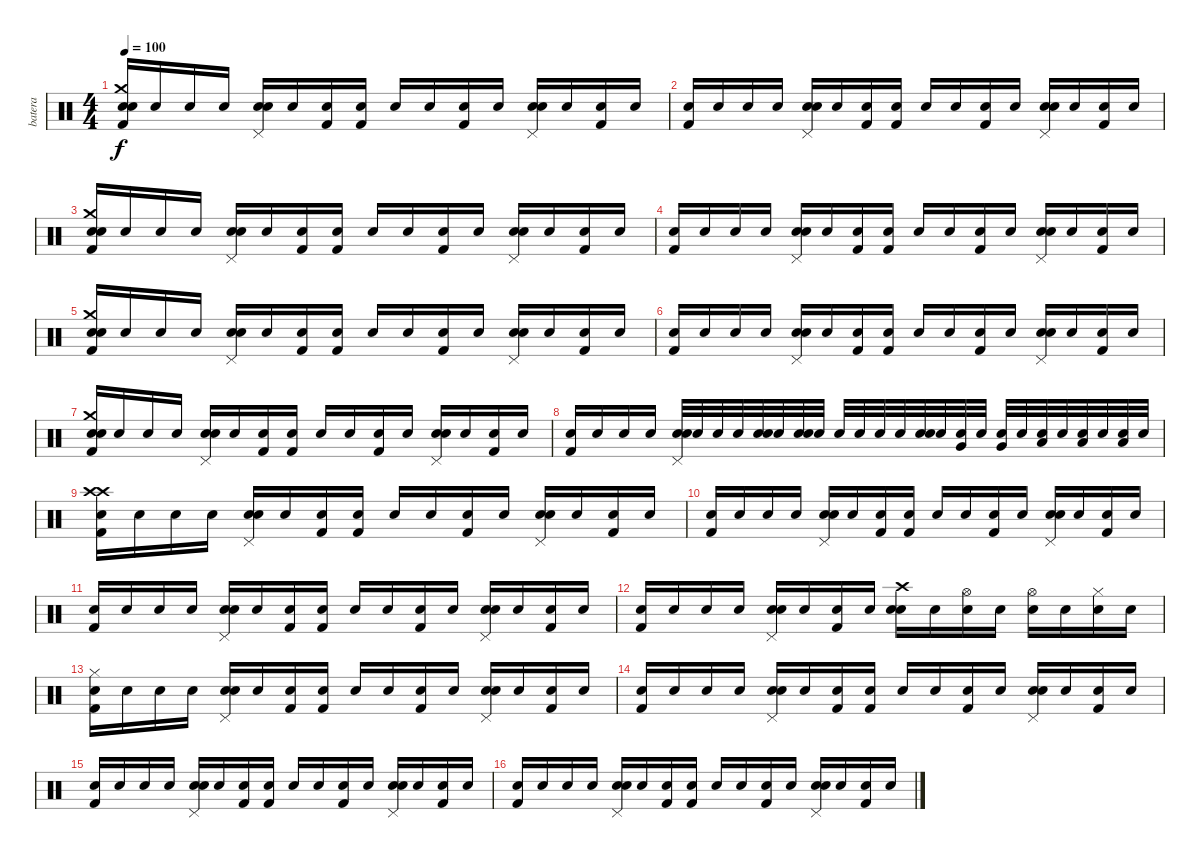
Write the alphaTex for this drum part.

\track ("batera" "batera") {instrument percussion}
\staff {score}
\articulation defaults
\ts (4 4)
\tempo 100
\clef neutral
\ks c
("Snare (hit)" "Crash medium (hit)" "Kick (hit) 2" "Snare (hit) 2").16{dy f} "Snare (hit)".16 "Snare (hit)".16 "Snare (hit)".16 ("Snare (hit)" "Pedal Hi-Hat (hit)" "Snare (hit) 2").16 "Snare (hit)".16 ("Snare (hit)" "Kick (hit) 2").16 ("Snare (hit)" "Kick (hit) 2").16 "Snare (hit)".16 "Snare (hit)".16 ("Snare (hit)" "Kick (hit) 2").16 "Snare (hit)".16 ("Snare (hit)" "Pedal Hi-Hat (hit)" "Snare (hit) 2").16 "Snare (hit)".16 ("Snare (hit)" "Kick (hit) 2").16 "Snare (hit)".16 |
("Snare (hit)" "Kick (hit) 2").16 "Snare (hit)".16 "Snare (hit)".16 "Snare (hit)".16 ("Snare (hit)" "Pedal Hi-Hat (hit)" "Snare (hit) 2").16 "Snare (hit)".16 ("Snare (hit)" "Kick (hit) 2").16 ("Snare (hit)" "Kick (hit) 2").16 "Snare (hit)".16 "Snare (hit)".16 ("Snare (hit)" "Kick (hit) 2").16 "Snare (hit)".16 ("Snare (hit)" "Pedal Hi-Hat (hit)" "Snare (hit) 2").16 "Snare (hit)".16 ("Snare (hit)" "Kick (hit) 2").16 "Snare (hit)".16 |
("Snare (hit)" "Crash medium (hit)" "Kick (hit) 2" "Snare (hit) 2").16 "Snare (hit)".16 "Snare (hit)".16 "Snare (hit)".16 ("Snare (hit)" "Pedal Hi-Hat (hit)" "Snare (hit) 2").16 "Snare (hit)".16 ("Snare (hit)" "Kick (hit) 2").16 ("Snare (hit)" "Kick (hit) 2").16 "Snare (hit)".16 "Snare (hit)".16 ("Snare (hit)" "Kick (hit) 2").16 "Snare (hit)".16 ("Snare (hit)" "Pedal Hi-Hat (hit)" "Snare (hit) 2").16 "Snare (hit)".16 ("Snare (hit)" "Kick (hit) 2").16 "Snare (hit)".16 |
("Snare (hit)" "Kick (hit) 2").16 "Snare (hit)".16 "Snare (hit)".16 "Snare (hit)".16 ("Snare (hit)" "Pedal Hi-Hat (hit)" "Snare (hit) 2").16 "Snare (hit)".16 ("Snare (hit)" "Kick (hit) 2").16 ("Snare (hit)" "Kick (hit) 2").16 "Snare (hit)".16 "Snare (hit)".16 ("Snare (hit)" "Kick (hit) 2").16 "Snare (hit)".16 ("Snare (hit)" "Pedal Hi-Hat (hit)" "Snare (hit) 2").16 "Snare (hit)".16 ("Snare (hit)" "Kick (hit) 2").16 "Snare (hit)".16 |
("Snare (hit)" "Crash medium (hit)" "Kick (hit) 2" "Snare (hit) 2").16 "Snare (hit)".16 "Snare (hit)".16 "Snare (hit)".16 ("Snare (hit)" "Pedal Hi-Hat (hit)" "Snare (hit) 2").16 "Snare (hit)".16 ("Snare (hit)" "Kick (hit) 2").16 ("Snare (hit)" "Kick (hit) 2").16 "Snare (hit)".16 "Snare (hit)".16 ("Snare (hit)" "Kick (hit) 2").16 "Snare (hit)".16 ("Snare (hit)" "Pedal Hi-Hat (hit)" "Snare (hit) 2").16 "Snare (hit)".16 ("Snare (hit)" "Kick (hit) 2").16 "Snare (hit)".16 |
("Snare (hit)" "Kick (hit) 2").16 "Snare (hit)".16 "Snare (hit)".16 "Snare (hit)".16 ("Snare (hit)" "Pedal Hi-Hat (hit)" "Snare (hit) 2").16 "Snare (hit)".16 ("Snare (hit)" "Kick (hit) 2").16 ("Snare (hit)" "Kick (hit) 2").16 "Snare (hit)".16 "Snare (hit)".16 ("Snare (hit)" "Kick (hit) 2").16 "Snare (hit)".16 ("Snare (hit)" "Pedal Hi-Hat (hit)" "Snare (hit) 2").16 "Snare (hit)".16 ("Snare (hit)" "Kick (hit) 2").16 "Snare (hit)".16 |
("Snare (hit)" "Crash medium (hit)" "Kick (hit) 2" "Snare (hit) 2").16 "Snare (hit)".16 "Snare (hit)".16 "Snare (hit)".16 ("Snare (hit)" "Pedal Hi-Hat (hit)" "Snare (hit) 2").16 "Snare (hit)".16 ("Snare (hit)" "Kick (hit) 2").16 ("Snare (hit)" "Kick (hit) 2").16 "Snare (hit)".16 "Snare (hit)".16 ("Snare (hit)" "Kick (hit) 2").16 "Snare (hit)".16 ("Snare (hit)" "Pedal Hi-Hat (hit)" "Snare (hit) 2").16 "Snare (hit)".16 ("Snare (hit)" "Kick (hit) 2").16 "Snare (hit)".16 |
("Snare (hit)" "Kick (hit) 2").16 "Snare (hit)".16 "Snare (hit)".16 "Snare (hit)".16 ("Snare (hit)" "Pedal Hi-Hat (hit)" "Snare (hit) 2").32 "Snare (hit)".32 "Snare (hit)".32 "Snare (hit)".32 ("Snare (hit)" "Snare (hit) 2").32 "Snare (hit)".32 ("Snare (hit)" "Snare (hit) 2").32 "Snare (hit)".32 "Snare (hit)".32 "Snare (hit)".32 "Snare (hit)".32 "Snare (hit)".32 ("Snare (hit)" "Electric Snare (hit)").32 "Snare (hit)".32 ("Snare (hit)" "Very Low Tom (hit)").32 "Snare (hit)".32 ("Snare (hit)" "Very Low Tom (hit)").32 "Snare (hit)".32 ("Snare (hit)" "Low Tom (hit)").32 "Snare (hit)".32 ("Snare (hit)" "Low Tom (hit)").32 "Snare (hit)".32 ("Snare (hit)" "Low Floor Tom (hit)").32 "Snare (hit)".32 |
("Snare (hit)" "Crash high (hit)" "Crash high (hit)" "Kick (hit) 2").16 "Snare (hit)".16 "Snare (hit)".16 "Snare (hit)".16 ("Snare (hit)" "Pedal Hi-Hat (hit)" "Snare (hit) 2").16 "Snare (hit)".16 ("Snare (hit)" "Kick (hit) 2").16 ("Snare (hit)" "Kick (hit) 2").16 "Snare (hit)".16 "Snare (hit)".16 ("Snare (hit)" "Kick (hit) 2").16 "Snare (hit)".16 ("Snare (hit)" "Pedal Hi-Hat (hit)" "Snare (hit) 2").16 "Snare (hit)".16 ("Snare (hit)" "Kick (hit) 2").16 "Snare (hit)".16 |
("Snare (hit)" "Kick (hit) 2").16 "Snare (hit)".16 "Snare (hit)".16 "Snare (hit)".16 ("Snare (hit)" "Pedal Hi-Hat (hit)" "Snare (hit) 2").16 "Snare (hit)".16 ("Snare (hit)" "Kick (hit) 2").16 ("Snare (hit)" "Kick (hit) 2").16 "Snare (hit)".16 "Snare (hit)".16 ("Snare (hit)" "Kick (hit) 2").16 "Snare (hit)".16 ("Snare (hit)" "Pedal Hi-Hat (hit)" "Snare (hit) 2").16 "Snare (hit)".16 ("Snare (hit)" "Kick (hit) 2").16 "Snare (hit)".16 |
("Snare (hit)" "Kick (hit) 2").16 "Snare (hit)".16 "Snare (hit)".16 "Snare (hit)".16 ("Snare (hit)" "Pedal Hi-Hat (hit)" "Snare (hit) 2").16 "Snare (hit)".16 ("Snare (hit)" "Kick (hit) 2").16 ("Snare (hit)" "Kick (hit) 2").16 "Snare (hit)".16 "Snare (hit)".16 ("Snare (hit)" "Kick (hit) 2").16 "Snare (hit)".16 ("Snare (hit)" "Pedal Hi-Hat (hit)" "Snare (hit) 2").16 "Snare (hit)".16 ("Snare (hit)" "Kick (hit) 2").16 "Snare (hit)".16 |
("Snare (hit)" "Kick (hit) 2").16 "Snare (hit)".16 "Snare (hit)".16 "Snare (hit)".16 ("Snare (hit)" "Pedal Hi-Hat (hit)" "Snare (hit) 2").16 "Snare (hit)".16 ("Snare (hit)" "Kick (hit) 2").16 "Snare (hit)".16 ("Snare (hit)" "Crash high (hit)" "Snare (hit) 2").16 "Snare (hit)".16 ("Snare (hit)" "Hi-Hat (open)").16 "Snare (hit)".16 ("Snare (hit)" "Hi-Hat (open)").16 "Snare (hit)".16 ("Snare (hit)" "Hi-Hat (closed)").16 "Snare (hit)".16 |
("Snare (hit)" "Hi-Hat (closed)" "Kick (hit) 2").16 "Snare (hit)".16 "Snare (hit)".16 "Snare (hit)".16 ("Snare (hit)" "Pedal Hi-Hat (hit)" "Snare (hit) 2").16 "Snare (hit)".16 ("Snare (hit)" "Kick (hit) 2").16 ("Snare (hit)" "Kick (hit) 2").16 "Snare (hit)".16 "Snare (hit)".16 ("Snare (hit)" "Kick (hit) 2").16 "Snare (hit)".16 ("Snare (hit)" "Pedal Hi-Hat (hit)" "Snare (hit) 2").16 "Snare (hit)".16 ("Snare (hit)" "Kick (hit) 2").16 "Snare (hit)".16 |
("Snare (hit)" "Kick (hit) 2").16 "Snare (hit)".16 "Snare (hit)".16 "Snare (hit)".16 ("Snare (hit)" "Pedal Hi-Hat (hit)" "Snare (hit) 2").16 "Snare (hit)".16 ("Snare (hit)" "Kick (hit) 2").16 ("Snare (hit)" "Kick (hit) 2").16 "Snare (hit)".16 "Snare (hit)".16 ("Snare (hit)" "Kick (hit) 2").16 "Snare (hit)".16 ("Snare (hit)" "Pedal Hi-Hat (hit)" "Snare (hit) 2").16 "Snare (hit)".16 ("Snare (hit)" "Kick (hit) 2").16 "Snare (hit)".16 |
("Snare (hit)" "Kick (hit) 2").16 "Snare (hit)".16 "Snare (hit)".16 "Snare (hit)".16 ("Snare (hit)" "Pedal Hi-Hat (hit)" "Snare (hit) 2").16 "Snare (hit)".16 ("Snare (hit)" "Kick (hit) 2").16 ("Snare (hit)" "Kick (hit) 2").16 "Snare (hit)".16 "Snare (hit)".16 ("Snare (hit)" "Kick (hit) 2").16 "Snare (hit)".16 ("Snare (hit)" "Pedal Hi-Hat (hit)" "Snare (hit) 2").16 "Snare (hit)".16 ("Snare (hit)" "Kick (hit) 2").16 "Snare (hit)".16 |
("Snare (hit)" "Kick (hit) 2").16 "Snare (hit)".16 "Snare (hit)".16 "Snare (hit)".16 ("Snare (hit)" "Pedal Hi-Hat (hit)" "Snare (hit) 2").16 "Snare (hit)".16 ("Snare (hit)" "Kick (hit) 2").16 ("Snare (hit)" "Kick (hit) 2").16 "Snare (hit)".16 "Snare (hit)".16 ("Snare (hit)" "Kick (hit) 2").16 "Snare (hit)".16 ("Snare (hit)" "Pedal Hi-Hat (hit)" "Snare (hit) 2").16 "Snare (hit)".16 ("Snare (hit)" "Kick (hit) 2").16 "Snare (hit)".16
